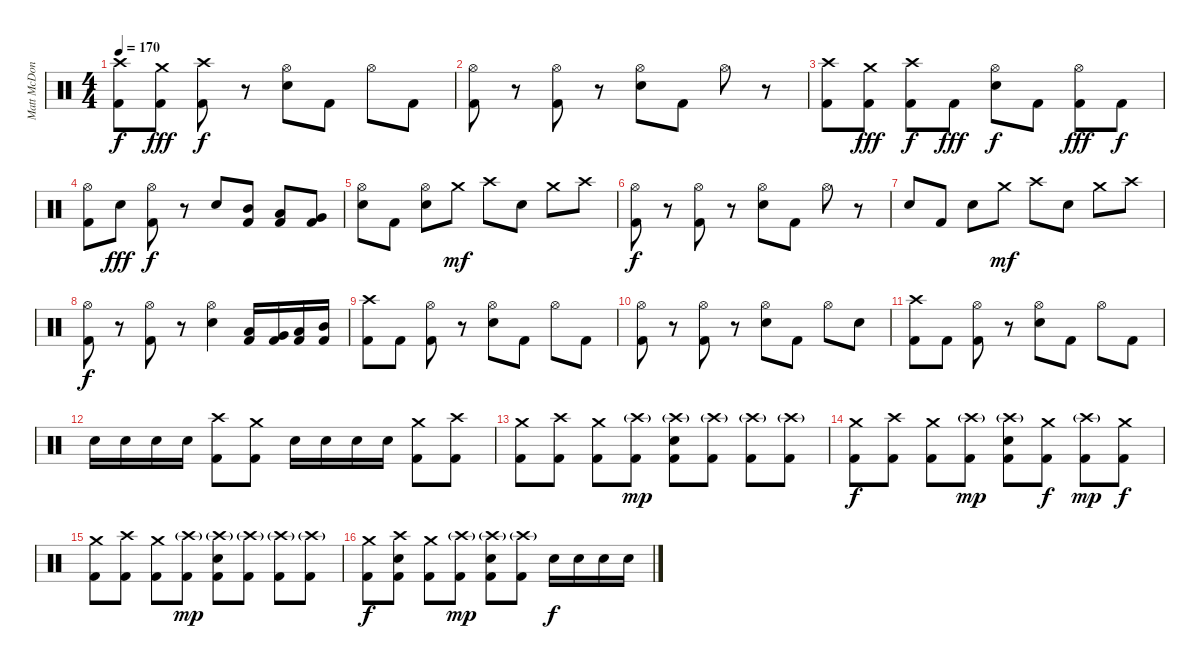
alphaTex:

\track ("Matt McDonough" "Matt McDon") {instrument percussion}
\staff {score}
\articulation defaults
\ts (4 4)
\tempo 170
\clef neutral
\ks c
("Crash high (hit)" "Kick (hit) 2").8{dy f} ("Crash medium (hit)" "Kick (hit) 2").8{dy fff} ("Crash high (hit)" "Kick (hit) 2").8{dy f} r.8 ("Hi-Hat (open)" "Electric Snare (hit)").8 "Kick (hit) 2".8 "Hi-Hat (open)".8 "Kick (hit) 2".8 |
("Hi-Hat (open)" "Kick (hit) 2").8 r.8 ("Hi-Hat (open)" "Kick (hit) 2").8 r.8 ("Hi-Hat (open)" "Electric Snare (hit)").8 "Kick (hit) 2".8 "Hi-Hat (open)".8 r.8 |
("Crash high (hit)" "Kick (hit) 2").8 ("Crash medium (hit)" "Kick (hit) 2").8{dy fff} ("Crash high (hit)" "Kick (hit) 2").8{dy f} "Kick (hit) 2".8{dy fff} ("Hi-Hat (open)" "Electric Snare (hit)").8{dy f} "Kick (hit) 2".8 ("Hi-Hat (open)" "Kick (hit) 2").8{dy fff} "Kick (hit) 2".8{dy f} |
("Hi-Hat (open)" "Kick (hit) 2").8 "Electric Snare (hit)".8{dy fff} ("Hi-Hat (open)" "Kick (hit) 2").8{dy f} r.8 "Electric Snare (hit)".8 ("Mid Tom (hit)" "Kick (hit) 2").8 ("Low Tom (hit)" "Kick (hit) 2").8 ("Very Low Tom (hit)" "Kick (hit) 2").8 |
("Hi-Hat (open)" "Electric Snare (hit)").8 "Kick (hit) 2".8 ("Hi-Hat (open)" "Electric Snare (hit)").8 "Crash medium (hit)".8{dy mf} "Crash high (hit)".8 "Electric Snare (hit)".8 "Crash medium (hit)".8 "Crash high (hit)".8 |
("Hi-Hat (open)" "Kick (hit) 2").8{dy f} r.8 ("Hi-Hat (open)" "Kick (hit) 2").8 r.8 ("Hi-Hat (open)" "Electric Snare (hit)").8 "Kick (hit) 2".8 "Hi-Hat (open)".8 r.8 |
"Electric Snare (hit)".8 "Kick (hit) 2".8 "Electric Snare (hit)".8 "Crash medium (hit)".8{dy mf} "Crash high (hit)".8 "Electric Snare (hit)".8 "Crash medium (hit)".8 "Crash high (hit)".8 |
("Hi-Hat (open)" "Kick (hit) 2").8{dy f} r.8 ("Hi-Hat (open)" "Kick (hit) 2").8 r.8 ("Hi-Hat (open)" "Electric Snare (hit)").4 ("Low Floor Tom (hit)" "Kick (hit) 2").16 ("Very Low Tom (hit)" "Kick (hit) 2").16 ("Low Tom (hit)" "Kick (hit) 2").16 ("Mid Tom (hit)" "Kick (hit) 2").16 |
("Crash high (hit)" "Kick (hit) 2").8 "Kick (hit) 2".8 ("Hi-Hat (open)" "Kick (hit) 2").8 r.8 ("Hi-Hat (open)" "Electric Snare (hit)").8 "Kick (hit) 2".8 "Hi-Hat (open)".8 "Kick (hit) 2".8 |
("Hi-Hat (open)" "Kick (hit) 2").8 r.8 ("Hi-Hat (open)" "Kick (hit) 2").8 r.8 ("Hi-Hat (open)" "Electric Snare (hit)").8 "Kick (hit) 2".8 "Hi-Hat (open)".8 "Electric Snare (hit)".8 |
("Crash high (hit)" "Kick (hit) 2").8 "Kick (hit) 2".8 ("Hi-Hat (open)" "Kick (hit) 2").8 r.8 ("Hi-Hat (open)" "Electric Snare (hit)").8 "Kick (hit) 2".8 "Hi-Hat (open)".8 "Kick (hit) 2".8 |
"Electric Snare (hit)".16 "Electric Snare (hit)".16 "Electric Snare (hit)".16 "Electric Snare (hit)".16 ("Crash high (hit)" "Kick (hit) 2").8 ("Crash medium (hit)" "Kick (hit) 2").8 "Electric Snare (hit)".16 "Electric Snare (hit)".16 "Electric Snare (hit)".16 "Electric Snare (hit)".16 ("Crash medium (hit)" "Kick (hit) 2").8 ("Crash high (hit)" "Kick (hit) 2").8 |
("Crash medium (hit)" "Kick (hit) 2").8 ("Crash high (hit)" "Kick (hit) 2").8 ("Crash medium (hit)" "Kick (hit) 2").8 ("Crash high (hit)"{g} "Kick (hit) 2").8{dy mp} ("Crash high (hit)"{g} "Electric Snare (hit)" "Kick (hit) 2").8 ("Crash high (hit)"{g} "Kick (hit) 2").8 ("Crash high (hit)"{g} "Kick (hit) 2").8 ("Crash high (hit)"{g} "Kick (hit) 2").8 |
("Crash medium (hit)" "Kick (hit) 2").8{dy f} ("Crash high (hit)" "Kick (hit) 2").8 ("Crash medium (hit)" "Kick (hit) 2").8 ("Crash high (hit)"{g} "Kick (hit) 2").8{dy mp} ("Crash high (hit)"{g} "Electric Snare (hit)" "Kick (hit) 2").8 ("Crash medium (hit)" "Kick (hit) 2").8{dy f} ("Crash high (hit)"{g} "Kick (hit) 2").8{dy mp} ("Crash medium (hit)" "Kick (hit) 2").8{dy f} |
("Crash medium (hit)" "Kick (hit) 2").8 ("Crash high (hit)" "Kick (hit) 2").8 ("Crash medium (hit)" "Kick (hit) 2").8 ("Crash high (hit)"{g} "Kick (hit) 2").8{dy mp} ("Crash high (hit)"{g} "Electric Snare (hit)" "Kick (hit) 2").8 ("Crash high (hit)"{g} "Kick (hit) 2").8 ("Crash high (hit)"{g} "Kick (hit) 2").8 ("Crash high (hit)"{g} "Kick (hit) 2").8 |
("Crash medium (hit)" "Kick (hit) 2").8{dy f} ("Crash high (hit)" "Electric Snare (hit)" "Kick (hit) 2").8 ("Crash medium (hit)" "Kick (hit) 2").8 ("Crash high (hit)"{g} "Kick (hit) 2").8{dy mp} ("Crash high (hit)"{g} "Electric Snare (hit)" "Kick (hit) 2").8 ("Crash high (hit)"{g} "Kick (hit) 2").8 "Electric Snare (hit)".16{dy f} "Electric Snare (hit)".16 "Electric Snare (hit)".16 "Electric Snare (hit)".16
